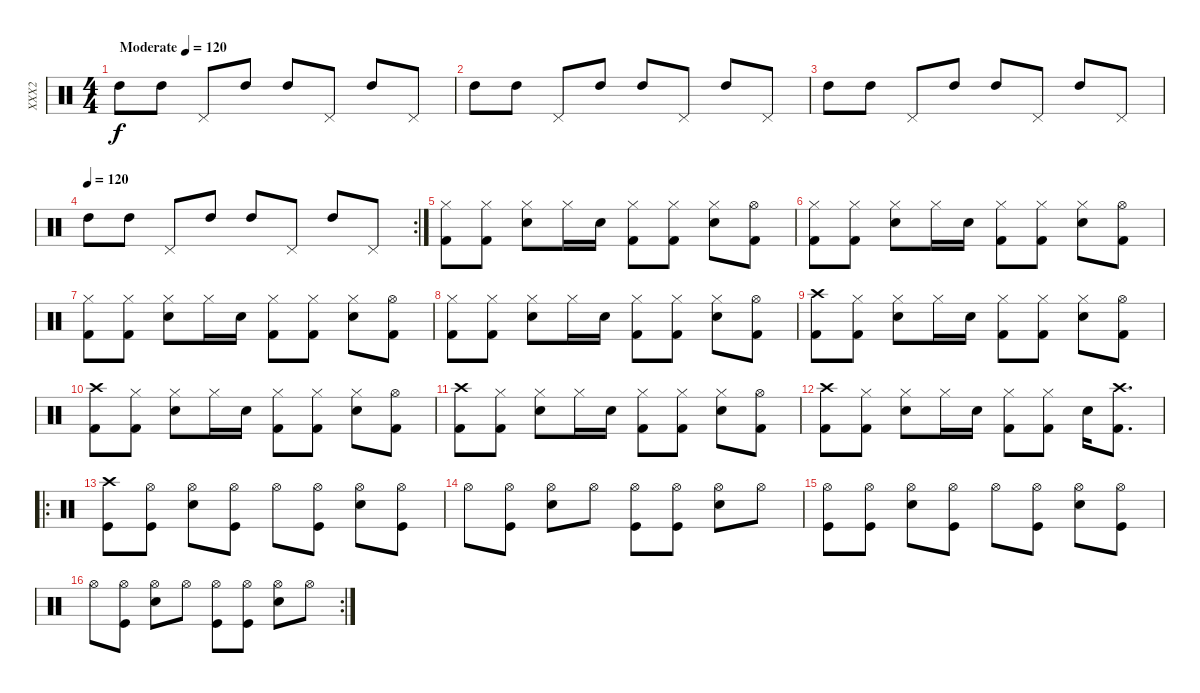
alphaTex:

\track ("XXX2" "XXX2") {solo instrument percussion}
\staff {score}
\articulation defaults
\ts (4 4)
\tempo (120 "Moderate")
\clef neutral
\ks c "High Tom (hit)".8{dy f} "High Tom (hit)".8 "Pedal Hi-Hat (hit)".8 "High Tom (hit)".8 "High Tom (hit)".8 "Pedal Hi-Hat (hit)".8 "High Tom (hit)".8 "Pedal Hi-Hat (hit)".8
|
"High Tom (hit)".8 "High Tom (hit)".8 "Pedal Hi-Hat (hit)".8 "High Tom (hit)".8 "High Tom (hit)".8 "Pedal Hi-Hat (hit)".8 "High Tom (hit)".8 "Pedal Hi-Hat (hit)".8 |
"High Tom (hit)".8 "High Tom (hit)".8 "Pedal Hi-Hat (hit)".8 "High Tom (hit)".8 "High Tom (hit)".8 "Pedal Hi-Hat (hit)".8 "High Tom (hit)".8 "Pedal Hi-Hat (hit)".8 |
\rc 2
\tempo (120)
"High Tom (hit)".8 "High Tom (hit)".8 "Pedal Hi-Hat (hit)".8 "High Tom (hit)".8 "High Tom (hit)".8 "Pedal Hi-Hat (hit)".8 "High Tom (hit)".8 "Pedal Hi-Hat (hit)".8 |
("Hi-Hat (closed)" "Kick (hit) 2").8 ("Hi-Hat (closed)" "Kick (hit) 2").8 ("Hi-Hat (closed)" "Snare (hit) 2").8 "Hi-Hat (closed)".16 "Snare (hit) 2".16 ("Hi-Hat (closed)" "Kick (hit) 2").8 ("Hi-Hat (closed)" "Kick (hit) 2").8 ("Hi-Hat (closed)" "Snare (hit) 2").8 ("Hi-Hat (open)" "Kick (hit) 2").8 |
("Hi-Hat (closed)" "Kick (hit) 2").8 ("Hi-Hat (closed)" "Kick (hit) 2").8 ("Hi-Hat (closed)" "Snare (hit) 2").8 "Hi-Hat (closed)".16 "Snare (hit) 2".16 ("Hi-Hat (closed)" "Kick (hit) 2").8 ("Hi-Hat (closed)" "Kick (hit) 2").8 ("Hi-Hat (closed)" "Snare (hit) 2").8 ("Hi-Hat (open)" "Kick (hit) 2").8 |
("Hi-Hat (closed)" "Kick (hit) 2").8 ("Hi-Hat (closed)" "Kick (hit) 2").8 ("Hi-Hat (closed)" "Snare (hit) 2").8 "Hi-Hat (closed)".16 "Snare (hit) 2".16 ("Hi-Hat (closed)" "Kick (hit) 2").8 ("Hi-Hat (closed)" "Kick (hit) 2").8 ("Hi-Hat (closed)" "Snare (hit) 2").8 ("Hi-Hat (open)" "Kick (hit) 2").8 |
("Hi-Hat (closed)" "Kick (hit) 2").8 ("Hi-Hat (closed)" "Kick (hit) 2").8 ("Hi-Hat (closed)" "Snare (hit) 2").8 "Hi-Hat (closed)".16 "Snare (hit) 2".16 ("Hi-Hat (closed)" "Kick (hit) 2").8 ("Hi-Hat (closed)" "Kick (hit) 2").8 ("Hi-Hat (closed)" "Snare (hit) 2").8 ("Hi-Hat (open)" "Kick (hit) 2").8 |
("Crash high (hit)" "Kick (hit) 2").8 ("Hi-Hat (closed)" "Kick (hit) 2").8 ("Hi-Hat (closed)" "Snare (hit) 2").8 "Hi-Hat (closed)".16 "Snare (hit) 2".16 ("Hi-Hat (closed)" "Kick (hit) 2").8 ("Hi-Hat (closed)" "Kick (hit) 2").8 ("Hi-Hat (closed)" "Snare (hit) 2").8 ("Hi-Hat (open)" "Kick (hit) 2").8 |
("Crash high (hit)" "Kick (hit) 2").8 ("Hi-Hat (closed)" "Kick (hit) 2").8 ("Hi-Hat (closed)" "Snare (hit) 2").8 "Hi-Hat (closed)".16 "Snare (hit) 2".16 ("Hi-Hat (closed)" "Kick (hit) 2").8 ("Hi-Hat (closed)" "Kick (hit) 2").8 ("Hi-Hat (closed)" "Snare (hit) 2").8 ("Hi-Hat (open)" "Kick (hit) 2").8 |
("Crash high (hit)" "Kick (hit) 2").8 ("Hi-Hat (closed)" "Kick (hit) 2").8 ("Hi-Hat (closed)" "Snare (hit) 2").8 "Hi-Hat (closed)".16 "Snare (hit) 2".16 ("Hi-Hat (closed)" "Kick (hit) 2").8 ("Hi-Hat (closed)" "Kick (hit) 2").8 ("Hi-Hat (closed)" "Snare (hit) 2").8 ("Hi-Hat (open)" "Kick (hit) 2").8 |
("Crash high (hit)" "Kick (hit) 2").8 ("Hi-Hat (closed)" "Kick (hit) 2").8 ("Hi-Hat (closed)" "Snare (hit) 2").8 "Hi-Hat (closed)".16 "Snare (hit) 2".16 ("Hi-Hat (closed)" "Kick (hit) 2").8 ("Hi-Hat (closed)" "Kick (hit) 2").8 "Snare (hit) 2".16 ("Crash high (hit)" "Kick (hit) 2").8{d} |
\ro
("Crash high (hit)" "Kick (hit)").8 ("Hi-Hat (open)" "Kick (hit)").8 ("Hi-Hat (open)" "Electric Snare (hit)").8 ("Hi-Hat (open)" "Kick (hit)").8 "Hi-Hat (open)".8 ("Hi-Hat (open)" "Kick (hit)").8 ("Hi-Hat (open)" "Electric Snare (hit)").8 ("Hi-Hat (open)" "Kick (hit)").8 |
"Hi-Hat (open)".8 ("Hi-Hat (open)" "Kick (hit)").8 ("Hi-Hat (open)" "Electric Snare (hit)").8 "Hi-Hat (open)".8 ("Hi-Hat (open)" "Kick (hit)").8 ("Hi-Hat (open)" "Kick (hit)").8 ("Hi-Hat (open)" "Electric Snare (hit)").8 "Hi-Hat (open)".8 |
("Hi-Hat (open)" "Kick (hit)").8 ("Hi-Hat (open)" "Kick (hit)").8 ("Hi-Hat (open)" "Electric Snare (hit)").8 ("Hi-Hat (open)" "Kick (hit)").8 "Hi-Hat (open)".8 ("Hi-Hat (open)" "Kick (hit)").8 ("Hi-Hat (open)" "Electric Snare (hit)").8 ("Hi-Hat (open)" "Kick (hit)").8 |
\rc 2 "Hi-Hat (open)".8
("Hi-Hat (open)" "Kick (hit)").8 ("Hi-Hat (open)" "Electric Snare (hit)").8 "Hi-Hat (open)".8 ("Hi-Hat (open)" "Kick (hit)").8 ("Hi-Hat (open)" "Kick (hit)").8 ("Hi-Hat (open)" "Electric Snare (hit)").8 "Hi-Hat (open)".8
